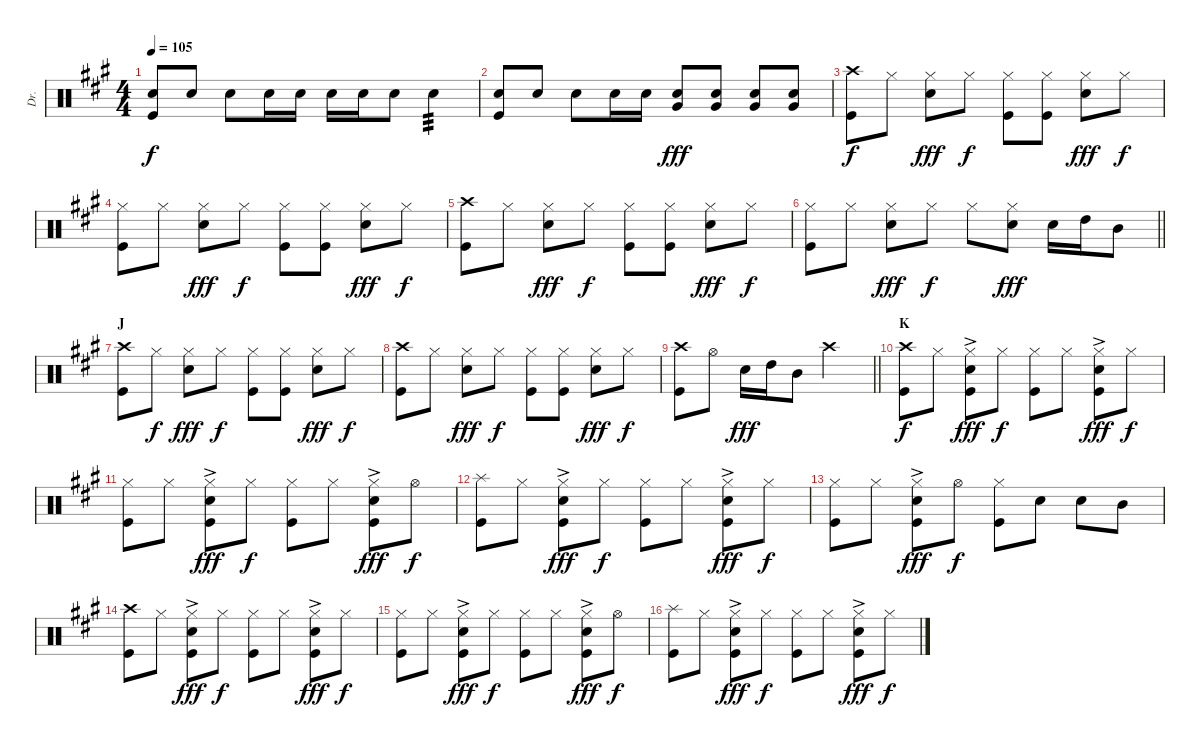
\track ("Dr." "Dr.") {instrument percussion}
\staff {score}
\articulation defaults
\ts (4 4)
\tempo 105
\clef neutral
\ks a
("Snare (hit) 2" "Kick (hit)").8{dy f} "Snare (hit) 2".8 "Snare (hit) 2".8 "Snare (hit) 2".16 "Snare (hit) 2".16 "Snare (hit) 2".16 "Snare (hit) 2".16 "Snare (hit) 2".8 "Snare (hit) 2".4{tp 3} |
("Snare (hit) 2" "Kick (hit)").8 "Snare (hit) 2".8 "Snare (hit) 2".8 "Snare (hit) 2".16 "Snare (hit) 2".16 ("Snare (hit) 2" "Very Low Tom (hit)").8{dy fff} ("Snare (hit) 2" "Very Low Tom (hit)").8 ("Snare (hit) 2" "Very Low Tom (hit)").8 ("Snare (hit) 2" "Very Low Tom (hit)").8 |
("Crash high (hit)" "Kick (hit)").8{dy f} "Hi-Hat (closed)".8 ("Hi-Hat (closed)" "Snare (hit) 2").8{dy fff} "Hi-Hat (closed)".8{dy f} ("Hi-Hat (closed)" "Kick (hit)").8 ("Hi-Hat (closed)" "Kick (hit)").8 ("Hi-Hat (closed)" "Snare (hit) 2").8{dy fff} "Hi-Hat (closed)".8{dy f} |
("Hi-Hat (closed)" "Kick (hit)").8 "Hi-Hat (closed)".8 ("Hi-Hat (closed)" "Snare (hit) 2").8{dy fff} "Hi-Hat (closed)".8{dy f} ("Hi-Hat (closed)" "Kick (hit)").8 ("Hi-Hat (closed)" "Kick (hit)").8 ("Hi-Hat (closed)" "Snare (hit) 2").8{dy fff} "Hi-Hat (closed)".8{dy f} |
("Crash high (hit)" "Kick (hit)").8 "Hi-Hat (closed)".8 ("Hi-Hat (closed)" "Snare (hit) 2").8{dy fff} "Hi-Hat (closed)".8{dy f} ("Hi-Hat (closed)" "Kick (hit)").8 ("Hi-Hat (closed)" "Kick (hit)").8 ("Hi-Hat (closed)" "Snare (hit) 2").8{dy fff} "Hi-Hat (closed)".8{dy f} |
\barLineRight lightlight
("Hi-Hat (closed)" "Kick (hit)").8 "Hi-Hat (closed)".8 ("Hi-Hat (closed)" "Snare (hit) 2").8{dy fff} "Hi-Hat (closed)".8{dy f} "Hi-Hat (closed)".8 ("Hi-Hat (closed)" "Snare (hit) 2").8{dy fff} "Snare (hit) 2".16 "High Tom (hit)".16 "Mid Tom (hit)".8 |
\section ("" "J")
("Crash high (hit)" "Kick (hit)").8 "Hi-Hat (closed)".8{dy f} ("Hi-Hat (closed)" "Snare (hit) 2").8{dy fff} "Hi-Hat (closed)".8{dy f} ("Hi-Hat (closed)" "Kick (hit)").8 ("Hi-Hat (closed)" "Kick (hit)").8 ("Hi-Hat (closed)" "Snare (hit) 2").8{dy fff} "Hi-Hat (closed)".8{dy f} |
("Crash high (hit)" "Kick (hit)").8 "Hi-Hat (closed)".8 ("Hi-Hat (closed)" "Snare (hit) 2").8{dy fff} "Hi-Hat (closed)".8{dy f} ("Hi-Hat (closed)" "Kick (hit)").8 ("Hi-Hat (closed)" "Kick (hit)").8 ("Hi-Hat (closed)" "Snare (hit) 2").8{dy fff} "Hi-Hat (closed)".8{dy f} |
\barLineRight lightlight
("Crash high (hit)" "Kick (hit)").8 "Hi-Hat (open)".8 "Snare (hit) 2".16{dy fff} "High Tom (hit)".16 "Mid Tom (hit)".8 "Crash high (hit)".2 |
\section ("" "K")
("Crash high (hit)" "Kick (hit)").8{dy f} "Hi-Hat (closed)".8 ("Hi-Hat (closed)"{ac} "Snare (hit) 2"{ac} "Kick (hit)").8{dy fff} "Hi-Hat (closed)".8{dy f} ("Hi-Hat (closed)" "Kick (hit)").8 "Hi-Hat (closed)".8 ("Hi-Hat (closed)"{ac} "Snare (hit) 2"{ac} "Kick (hit)").8{dy fff} "Hi-Hat (closed)".8{dy f} |
("Hi-Hat (closed)" "Kick (hit)").8 "Hi-Hat (closed)".8 ("Hi-Hat (closed)"{ac} "Snare (hit) 2"{ac} "Kick (hit)").8{dy fff} "Hi-Hat (closed)".8{dy f} ("Hi-Hat (closed)" "Kick (hit)").8 "Hi-Hat (closed)".8 ("Hi-Hat (closed)"{ac} "Snare (hit) 2"{ac} "Kick (hit)").8{dy fff} "Hi-Hat (open)".8{dy f} |
("Splash (hit)" "Kick (hit)").8 "Hi-Hat (closed)".8 ("Hi-Hat (closed)"{ac} "Snare (hit) 2"{ac} "Kick (hit)").8{dy fff} "Hi-Hat (closed)".8{dy f} ("Hi-Hat (closed)" "Kick (hit)").8 "Hi-Hat (closed)".8 ("Hi-Hat (closed)"{ac} "Snare (hit) 2"{ac} "Kick (hit)").8{dy fff} "Hi-Hat (closed)".8{dy f} |
("Hi-Hat (closed)" "Kick (hit)").8 "Hi-Hat (closed)".8 ("Hi-Hat (closed)"{ac} "Snare (hit) 2"{ac} "Kick (hit)").8{dy fff} "Hi-Hat (open)".8{dy f} ("Hi-Hat (closed)" "Kick (hit)").8 "Snare (hit) 2".8 "Snare (hit) 2".8 "Mid Tom (hit)".8 |
("Crash high (hit)" "Kick (hit)").8 "Hi-Hat (closed)".8 ("Hi-Hat (closed)"{ac} "Snare (hit) 2"{ac} "Kick (hit)").8{dy fff} "Hi-Hat (closed)".8{dy f} ("Hi-Hat (closed)" "Kick (hit)").8 "Hi-Hat (closed)".8 ("Hi-Hat (closed)"{ac} "Snare (hit) 2"{ac} "Kick (hit)").8{dy fff} "Hi-Hat (closed)".8{dy f} |
("Hi-Hat (closed)" "Kick (hit)").8 "Hi-Hat (closed)".8 ("Hi-Hat (closed)"{ac} "Snare (hit) 2"{ac} "Kick (hit)").8{dy fff} "Hi-Hat (closed)".8{dy f} ("Hi-Hat (closed)" "Kick (hit)").8 "Hi-Hat (closed)".8 ("Hi-Hat (closed)"{ac} "Snare (hit) 2"{ac} "Kick (hit)").8{dy fff} "Hi-Hat (open)".8{dy f} |
("Splash (hit)" "Kick (hit)").8 "Hi-Hat (closed)".8 ("Hi-Hat (closed)"{ac} "Snare (hit) 2"{ac} "Kick (hit)").8{dy fff} "Hi-Hat (closed)".8{dy f} ("Hi-Hat (closed)" "Kick (hit)").8 "Hi-Hat (closed)".8 ("Hi-Hat (closed)"{ac} "Snare (hit) 2"{ac} "Kick (hit)").8{dy fff} "Hi-Hat (closed)".8{dy f}
